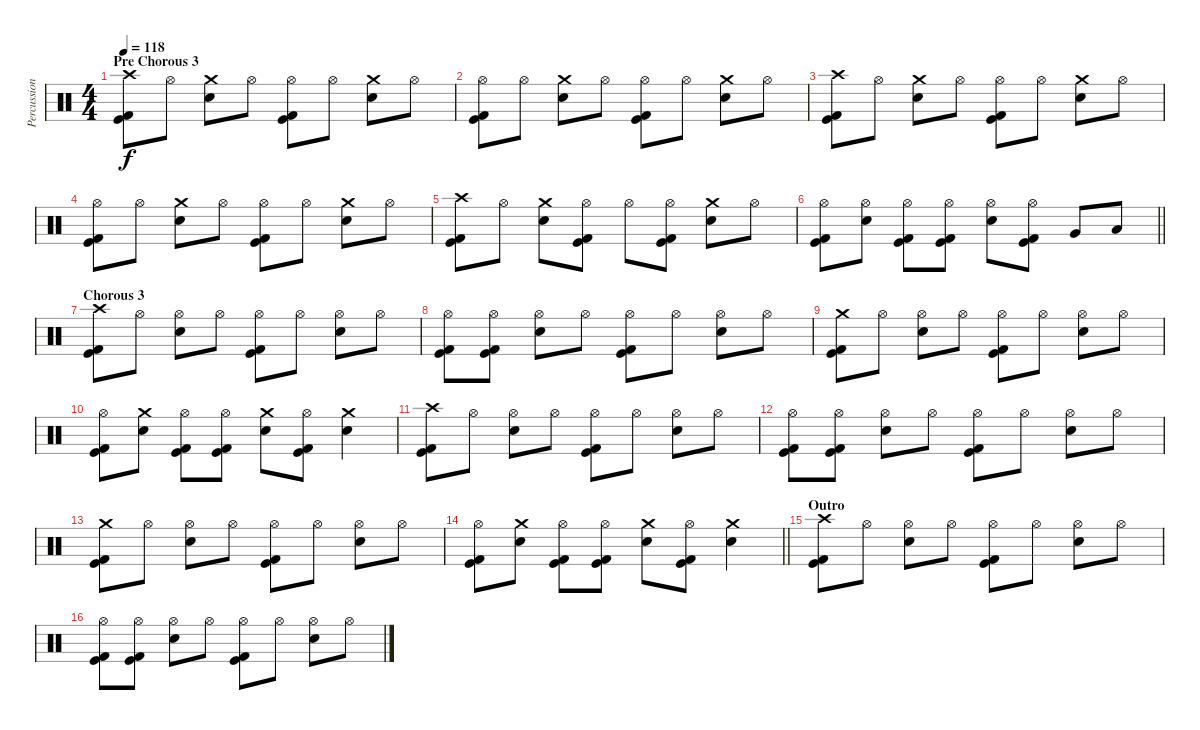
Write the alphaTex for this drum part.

\track ("Percussion" "Percussion") {instrument percussion}
\staff {score}
\articulation defaults
\ts (4 4)
\section ("" "Pre Chorous 3")
\tempo 118
\clef neutral
\ks c
("Crash high (hit)" "Kick (hit)" "Kick (hit) 2").8{dy f} "Hi-Hat (open)".8 ("Crash medium (hit)" "Electric Snare (hit)").8 "Hi-Hat (open)".8 ("Hi-Hat (open)" "Kick (hit)" "Kick (hit) 2").8 "Hi-Hat (open)".8 ("Crash medium (hit)" "Electric Snare (hit)").8 "Hi-Hat (open)".8 |
("Hi-Hat (open)" "Kick (hit)" "Kick (hit) 2").8 "Hi-Hat (open)".8 ("Crash medium (hit)" "Electric Snare (hit)").8 "Hi-Hat (open)".8 ("Hi-Hat (open)" "Kick (hit)" "Kick (hit) 2").8 "Hi-Hat (open)".8 ("Crash medium (hit)" "Electric Snare (hit)").8 "Hi-Hat (open)".8 |
("Crash high (hit)" "Kick (hit)" "Kick (hit) 2").8 "Hi-Hat (open)".8 ("Crash medium (hit)" "Electric Snare (hit)").8 "Hi-Hat (open)".8 ("Hi-Hat (open)" "Kick (hit)" "Kick (hit) 2").8 "Hi-Hat (open)".8 ("Crash medium (hit)" "Electric Snare (hit)").8 "Hi-Hat (open)".8 |
("Hi-Hat (open)" "Kick (hit)" "Kick (hit) 2").8 "Hi-Hat (open)".8 ("Crash medium (hit)" "Electric Snare (hit)").8 "Hi-Hat (open)".8 ("Hi-Hat (open)" "Kick (hit)" "Kick (hit) 2").8 "Hi-Hat (open)".8 ("Crash medium (hit)" "Electric Snare (hit)").8 "Hi-Hat (open)".8 |
("Crash high (hit)" "Kick (hit)" "Kick (hit) 2").8 "Hi-Hat (open)".8 ("Crash medium (hit)" "Electric Snare (hit)").8 ("Hi-Hat (open)" "Kick (hit)" "Kick (hit) 2").8 "Hi-Hat (open)".8 ("Hi-Hat (open)" "Kick (hit)" "Kick (hit) 2").8 ("Crash medium (hit)" "Electric Snare (hit)").8 "Hi-Hat (open)".8 |
\barLineRight lightlight
("Hi-Hat (open)" "Kick (hit)" "Kick (hit) 2").8 ("Hi-Hat (open)" "Electric Snare (hit)").8 ("Hi-Hat (open)" "Kick (hit)" "Kick (hit) 2").8 ("Hi-Hat (open)" "Kick (hit)" "Kick (hit) 2").8 ("Hi-Hat (open)" "Electric Snare (hit)").8 ("Hi-Hat (open)" "Kick (hit)" "Kick (hit) 2").8 "Very Low Tom (hit)".8 "Low Floor Tom (hit)".8 |
\section ("" "Chorous 3")
("Crash high (hit)" "Kick (hit)" "Kick (hit) 2").8 "Hi-Hat (open)".8 ("Hi-Hat (open)" "Electric Snare (hit)").8 "Hi-Hat (open)".8 ("Hi-Hat (open)" "Kick (hit)" "Kick (hit) 2").8 "Hi-Hat (open)".8 ("Hi-Hat (open)" "Electric Snare (hit)").8 "Hi-Hat (open)".8 |
("Hi-Hat (open)" "Kick (hit)" "Kick (hit) 2").8 ("Hi-Hat (open)" "Kick (hit)" "Kick (hit) 2").8 ("Hi-Hat (open)" "Electric Snare (hit)").8 "Hi-Hat (open)".8 ("Hi-Hat (open)" "Kick (hit)" "Kick (hit) 2").8 "Hi-Hat (open)".8 ("Hi-Hat (open)" "Electric Snare (hit)").8 "Hi-Hat (open)".8 |
("Crash medium (hit)" "Kick (hit)" "Kick (hit) 2").8 "Hi-Hat (open)".8 ("Hi-Hat (open)" "Electric Snare (hit)").8 "Hi-Hat (open)".8 ("Hi-Hat (open)" "Kick (hit)" "Kick (hit) 2").8 "Hi-Hat (open)".8 ("Hi-Hat (open)" "Electric Snare (hit)").8 "Hi-Hat (open)".8 |
("Hi-Hat (open)" "Kick (hit)" "Kick (hit) 2").8 ("Crash medium (hit)" "Electric Snare (hit)").8 ("Hi-Hat (open)" "Kick (hit)" "Kick (hit) 2").8 ("Hi-Hat (open)" "Kick (hit)" "Kick (hit) 2").8 ("Crash medium (hit)" "Electric Snare (hit)").8 ("Hi-Hat (open)" "Kick (hit)" "Kick (hit) 2").8 ("Crash medium (hit)" "Electric Snare (hit)").4 |
("Crash high (hit)" "Kick (hit)" "Kick (hit) 2").8 "Hi-Hat (open)".8 ("Hi-Hat (open)" "Electric Snare (hit)").8 "Hi-Hat (open)".8 ("Hi-Hat (open)" "Kick (hit)" "Kick (hit) 2").8 "Hi-Hat (open)".8 ("Hi-Hat (open)" "Electric Snare (hit)").8 "Hi-Hat (open)".8 |
("Hi-Hat (open)" "Kick (hit)" "Kick (hit) 2").8 ("Hi-Hat (open)" "Kick (hit)" "Kick (hit) 2").8 ("Hi-Hat (open)" "Electric Snare (hit)").8 "Hi-Hat (open)".8 ("Hi-Hat (open)" "Kick (hit)" "Kick (hit) 2").8 "Hi-Hat (open)".8 ("Hi-Hat (open)" "Electric Snare (hit)").8 "Hi-Hat (open)".8 |
("Crash medium (hit)" "Kick (hit)" "Kick (hit) 2").8 "Hi-Hat (open)".8 ("Hi-Hat (open)" "Electric Snare (hit)").8 "Hi-Hat (open)".8 ("Hi-Hat (open)" "Kick (hit)" "Kick (hit) 2").8 "Hi-Hat (open)".8 ("Hi-Hat (open)" "Electric Snare (hit)").8 "Hi-Hat (open)".8 |
\barLineRight lightlight
("Hi-Hat (open)" "Kick (hit)" "Kick (hit) 2").8 ("Crash medium (hit)" "Electric Snare (hit)").8 ("Hi-Hat (open)" "Kick (hit)" "Kick (hit) 2").8 ("Hi-Hat (open)" "Kick (hit)" "Kick (hit) 2").8 ("Crash medium (hit)" "Electric Snare (hit)").8 ("Hi-Hat (open)" "Kick (hit)" "Kick (hit) 2").8 ("Crash medium (hit)" "Electric Snare (hit)").4 |
\section ("" "Outro")
("Crash high (hit)" "Kick (hit)" "Kick (hit) 2").8 "Hi-Hat (open)".8 ("Hi-Hat (open)" "Electric Snare (hit)").8 "Hi-Hat (open)".8 ("Hi-Hat (open)" "Kick (hit)" "Kick (hit) 2").8 "Hi-Hat (open)".8 ("Hi-Hat (open)" "Electric Snare (hit)").8 "Hi-Hat (open)".8 |
("Hi-Hat (open)" "Kick (hit)" "Kick (hit) 2").8 ("Hi-Hat (open)" "Kick (hit)" "Kick (hit) 2").8 ("Hi-Hat (open)" "Electric Snare (hit)").8 "Hi-Hat (open)".8 ("Hi-Hat (open)" "Kick (hit)" "Kick (hit) 2").8 "Hi-Hat (open)".8 ("Hi-Hat (open)" "Electric Snare (hit)").8 "Hi-Hat (open)".8
